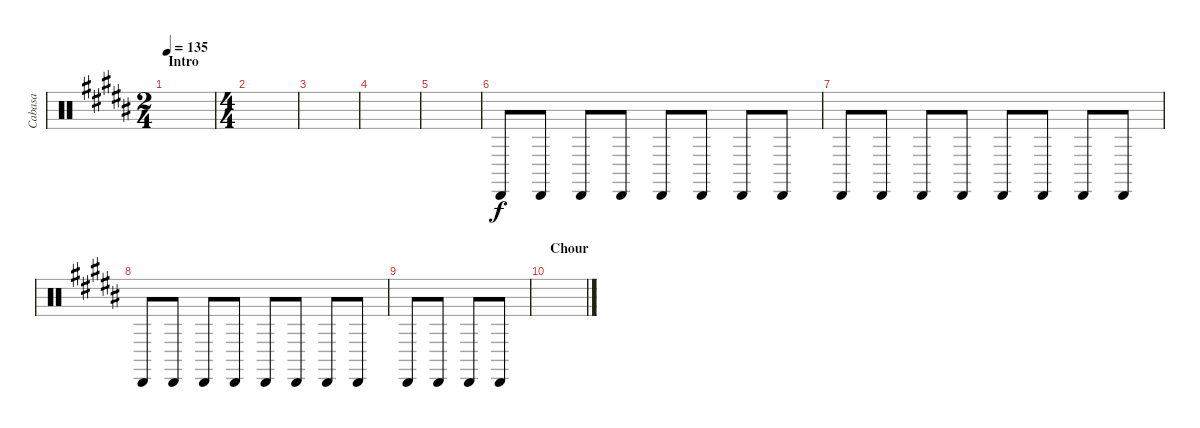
\track ("Cabasa" "Cabasa") {instrument percussion}
\staff {score}
\articulation defaults
\ts (2 4)
\section ("" "Intro")
\tempo 135
\clef neutral
\ks b
|
\ts (4 4)
|
|
|
|
"Cabasa (hit)".8 "Cabasa (hit)".8 "Cabasa (hit)".8 "Cabasa (hit)".8 "Cabasa (hit)".8 "Cabasa (hit)".8 "Cabasa (hit)".8 "Cabasa (hit)".8 |
"Cabasa (hit)".8 "Cabasa (hit)".8 "Cabasa (hit)".8 "Cabasa (hit)".8 "Cabasa (hit)".8 "Cabasa (hit)".8 "Cabasa (hit)".8 "Cabasa (hit)".8 |
"Cabasa (hit)".8 "Cabasa (hit)".8 "Cabasa (hit)".8 "Cabasa (hit)".8 "Cabasa (hit)".8 "Cabasa (hit)".8 "Cabasa (hit)".8 "Cabasa (hit)".8 |
"Cabasa (hit)".8 "Cabasa (hit)".8 "Cabasa (hit)".8 "Cabasa (hit)".8 |
\section ("" "Chour")
